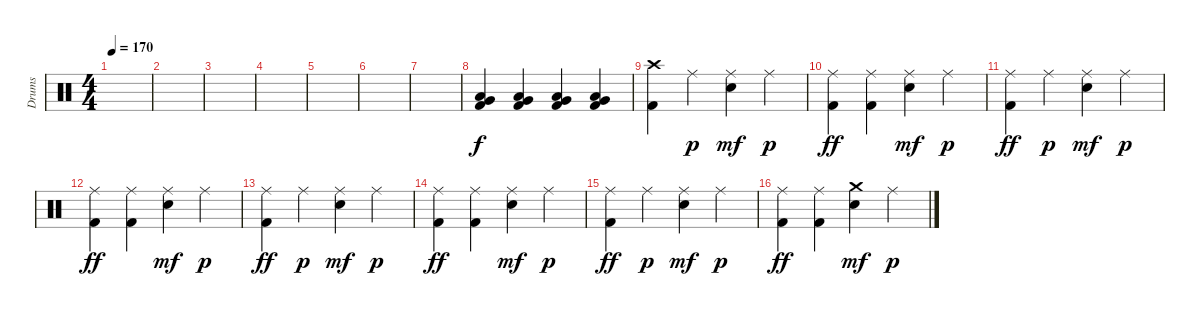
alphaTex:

\track ("Drums" "Drums") {instrument percussion}
\staff {score}
\articulation defaults
\ts (4 4)
\tempo 170
\clef neutral
\ks c
|
|
|
|
|
|
|
("Low Tom (hit)" "Very Low Tom (hit)" "Kick (hit) 2").4 ("Low Tom (hit)" "Very Low Tom (hit)" "Kick (hit) 2").4 ("Low Tom (hit)" "Very Low Tom (hit)" "Kick (hit) 2").4 ("Low Tom (hit)" "Very Low Tom (hit)" "Kick (hit) 2").4 |
\section ("" "")
("Crash high (hit)" "Kick (hit) 2").4 "Ride (middle)".4{dy p} ("Ride (middle)" "Electric Snare (hit)").4{dy mf} "Ride (middle)".4{dy p} |
("Ride (middle)" "Kick (hit) 2").4{dy ff} ("Ride (middle)" "Kick (hit) 2").4 ("Ride (middle)" "Electric Snare (hit)").4{dy mf} "Ride (middle)".4{dy p} |
("Ride (middle)" "Kick (hit) 2").4{dy ff} "Ride (middle)".4{dy p} ("Ride (middle)" "Electric Snare (hit)").4{dy mf} "Ride (middle)".4{dy p} |
("Ride (middle)" "Kick (hit) 2").4{dy ff} ("Ride (middle)" "Kick (hit) 2").4 ("Ride (middle)" "Electric Snare (hit)").4{dy mf} "Ride (middle)".4{dy p} |
("Ride (middle)" "Kick (hit) 2").4{dy ff} "Ride (middle)".4{dy p} ("Ride (middle)" "Electric Snare (hit)").4{dy mf} "Ride (middle)".4{dy p} |
("Ride (middle)" "Kick (hit) 2").4{dy ff} ("Ride (middle)" "Kick (hit) 2").4 ("Ride (middle)" "Electric Snare (hit)").4{dy mf} "Ride (middle)".4{dy p} |
("Ride (middle)" "Kick (hit) 2").4{dy ff} "Ride (middle)".4{dy p} ("Ride (middle)" "Electric Snare (hit)").4{dy mf} "Ride (middle)".4{dy p} |
("Ride (middle)" "Kick (hit) 2").4{dy ff} ("Ride (middle)" "Kick (hit) 2").4 ("Crash medium (hit)" "Electric Snare (hit)").4{dy mf} "Ride (middle)".4{dy p}
